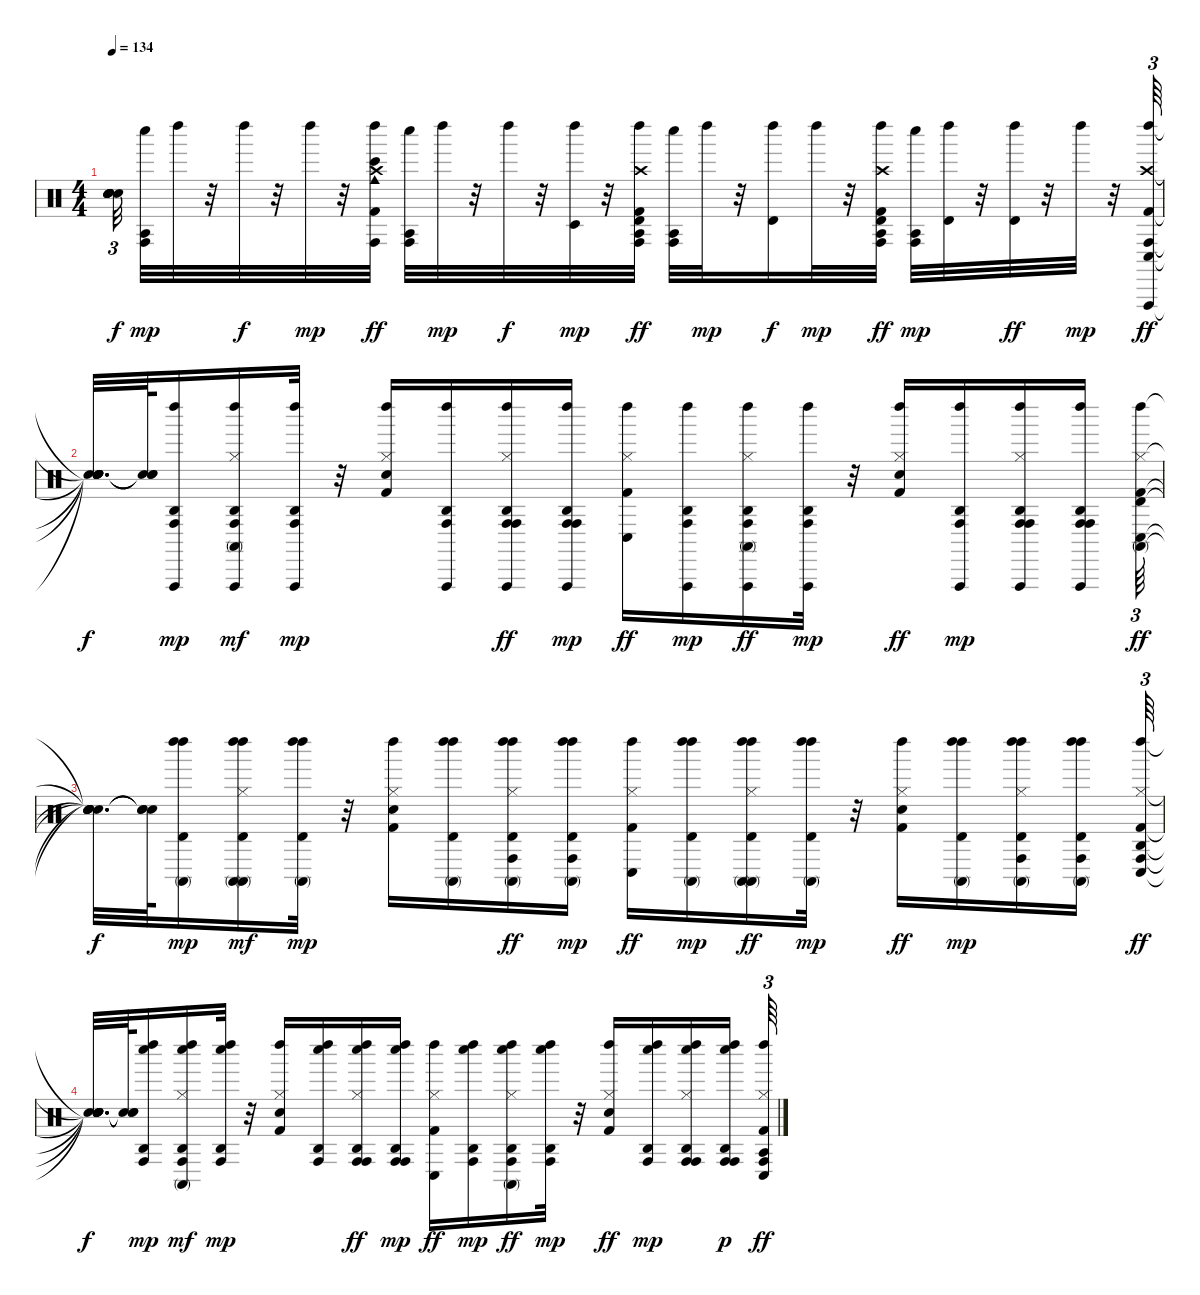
\track "" {instrument percussion}
\staff {score}
\articulation defaults
\ts (4 4)
\tempo 134
\clef neutral
\ks c
("Snare (hit)"{t} "Snare (hit)"{t} "Snare (hit)"{t} "Snare (hit)"{t} "Snare (hit)"{t} "Snare (hit)"{t}).32{tu (3 2) dy f beam splitsecondary} ("Agogo tow (hit)" "Conga high (hit)" "Whistle low (hit)").32{dy mp} "Left Maraca (hit)".32 r.32 "Left Maraca (hit)".32{dy f} r.32 "Left Maraca (hit)".32{dy mp} r.32 ("Kick (hit) 2" "Crash high (hit)" "Left Maraca (hit)" "Cowbell medium (hit)" "Bongo High (hit)" "Conga high (hit)").32{dy ff} ("Whistle low (hit)" "Agogo tow (hit)" "Conga high (hit)").32 "Left Maraca (hit)".32{dy mp} r.32 "Left Maraca (hit)".32{dy f} r.32 ("Timbale low (hit)" "Left Maraca (hit)").32{dy mp} r.32 ("Left Maraca (hit)" "Timbale high (hit)" "Crash high (hit)" "Kick (hit) 2" "Agogo tow (hit)" "Conga high (hit)").32{dy ff} ("Conga high (hit)" "Whistle low (hit)" "Agogo tow (hit)").32 "Left Maraca (hit)".32{dy mp} r.32 ("Left Maraca (hit)" "Timbale high (hit)").16{dy f} "Left Maraca (hit)".32{dy mp} r.32 ("Left Maraca (hit)" "Timbale high (hit)" "Crash high (hit)" "Kick (hit) 2" "Agogo tow (hit)" "Conga high (hit)").32{dy ff} ("Conga high (hit)" "Agogo tow (hit)" "Whistle low (hit)").32{dy mp} ("Timbale high (hit)" "Left Maraca (hit)").32 r.32 ("Left Maraca (hit)" "Timbale high (hit)").32{dy ff} r.32 "Left Maraca (hit)".32{dy mp} r.32 ("Kick (hit) 2" "Crash high (hit)" "Conga low (hit)" "Left Maraca (hit)" "Conga high (hit)" "Vibraslap (hit)").64{tu (3 2) dy ff} |
("Snare (hit)"{t} "Snare (hit)"{t} "Snare (hit)"{t} "Snare (hit)"{t} "Snare (hit)"{t} "Snare (hit)"{t}).32{d dy f} ("Snare (hit)"{t} "Snare (hit)"{t} "Snare (hit)"{t}).64 ("Agogo high (hit)" "Conga high (hit)" "Vibraslap (hit)" "Left Maraca (hit)").16{dy mp} ("Agogo high (hit)" "Conga high (hit)" "Vibraslap (hit)" "Hi-Hat (closed)" "Conga high (mute)" "Left Maraca (hit)").16{dy mf} ("Agogo high (hit)" "Conga high (hit)" "Vibraslap (hit)" "Left Maraca (hit)").32{dy mp} r.32 ("Kick (hit) 2" "Snare (hit) 2" "Hi-Hat (closed)" "Left Maraca (hit)").16 ("Agogo high (hit)" "Conga high (hit)" "Vibraslap (hit)" "Left Maraca (hit)").16 ("Agogo high (hit)" "Conga high (hit)" "Vibraslap (hit)" "Left Maraca (hit)" "Conga high (hit)" "Hi-Hat (closed)").16{dy ff} ("Agogo high (hit)" "Conga high (hit)" "Vibraslap (hit)" "Conga high (hit)" "Left Maraca (hit)").16{dy mp} ("Left Maraca (hit)" "Conga low (hit)" "Hi-Hat (closed)" "Kick (hit) 2").16{dy ff} ("Agogo high (hit)" "Conga high (hit)" "Vibraslap (hit)" "Left Maraca (hit)").16{dy mp} ("Agogo high (hit)" "Conga high (hit)" "Vibraslap (hit)" "Left Maraca (hit)" "Conga high (mute)" "Hi-Hat (closed)").16{dy ff} ("Agogo high (hit)" "Conga high (hit)" "Vibraslap (hit)" "Left Maraca (hit)").32{dy mp} r.32 ("Left Maraca (hit)" "Hi-Hat (closed)" "Snare (hit) 2" "Kick (hit) 2").16{dy ff} ("Agogo high (hit)" "Conga high (hit)" "Vibraslap (hit)" "Left Maraca (hit)").16{dy mp} ("Agogo high (hit)" "Conga high (hit)" "Vibraslap (hit)" "Hi-Hat (closed)" "Conga high (hit)" "Left Maraca (hit)").16 ("Agogo high (hit)" "Conga high (hit)" "Vibraslap (hit)" "Left Maraca (hit)" "Conga high (hit)").16 ("Kick (hit) 2" "Hi-Hat (closed)" "Conga low (hit)" "Left Maraca (hit)" "Timbale high (hit)" "Conga high (mute)").64{tu (3 2) dy ff} |
("Snare (hit)"{t} "Snare (hit)"{t} "Snare (hit)"{t} "Snare (hit)"{t} "Snare (hit)"{t} "Snare (hit)"{t}).32{d dy f} ("Snare (hit)"{t} "Snare (hit)"{t} "Snare (hit)"{t}).64 ("Left Maraca (hit)" "Timbale high (hit)" "Conga high (mute)" "Left Maraca (hit)").16{dy mp} ("Left Maraca (hit)" "Timbale high (hit)" "Conga high (mute)" "Hi-Hat (closed)" "Conga high (mute)" "Left Maraca (hit)").16{dy mf} ("Left Maraca (hit)" "Timbale high (hit)" "Conga high (mute)" "Left Maraca (hit)").32{dy mp} r.32 ("Kick (hit) 2" "Snare (hit) 2" "Hi-Hat (closed)" "Left Maraca (hit)").16 ("Left Maraca (hit)" "Timbale high (hit)" "Conga high (mute)" "Left Maraca (hit)").16 ("Left Maraca (hit)" "Timbale high (hit)" "Conga high (mute)" "Left Maraca (hit)" "Conga high (hit)" "Hi-Hat (closed)").16{dy ff} ("Left Maraca (hit)" "Timbale high (hit)" "Conga high (mute)" "Conga high (hit)" "Left Maraca (hit)").16{dy mp} ("Left Maraca (hit)" "Conga low (hit)" "Hi-Hat (closed)" "Kick (hit) 2").16{dy ff} ("Left Maraca (hit)" "Timbale high (hit)" "Conga high (mute)" "Left Maraca (hit)").16{dy mp} ("Left Maraca (hit)" "Timbale high (hit)" "Conga high (mute)" "Left Maraca (hit)" "Conga high (mute)" "Hi-Hat (closed)").16{dy ff} ("Left Maraca (hit)" "Timbale high (hit)" "Conga high (mute)" "Left Maraca (hit)").32{dy mp} r.32 ("Left Maraca (hit)" "Hi-Hat (closed)" "Snare (hit) 2" "Kick (hit) 2").16{dy ff} ("Conga high (mute)" "Timbale high (hit)" "Left Maraca (hit)" "Left Maraca (hit)").16{dy mp} ("Left Maraca (hit)" "Timbale high (hit)" "Conga high (mute)" "Hi-Hat (closed)" "Conga high (hit)" "Left Maraca (hit)").16 ("Left Maraca (hit)" "Timbale high (hit)" "Conga high (mute)" "Left Maraca (hit)" "Conga high (hit)").16 ("Kick (hit) 2" "Hi-Hat (closed)" "Conga low (hit)" "Left Maraca (hit)" "Agogo high (hit)" "Conga high (hit)").64{tu (3 2) dy ff} |
("Snare (hit)"{t} "Snare (hit)"{t} "Snare (hit)"{t} "Snare (hit)"{t} "Snare (hit)"{t} "Snare (hit)"{t}).32{d dy f} ("Snare (hit)"{t} "Snare (hit)"{t} "Snare (hit)"{t}).64 ("Whistle low (hit)" "Agogo high (hit)" "Conga high (hit)" "Left Maraca (hit)").16{dy mp} ("Whistle low (hit)" "Agogo high (hit)" "Conga high (hit)" "Hi-Hat (closed)" "Conga high (mute)" "Left Maraca (hit)").16{dy mf} ("Whistle low (hit)" "Agogo high (hit)" "Conga high (hit)" "Left Maraca (hit)").32{dy mp} r.32 ("Kick (hit) 2" "Snare (hit) 2" "Hi-Hat (closed)" "Left Maraca (hit)").16 ("Whistle low (hit)" "Agogo high (hit)" "Conga high (hit)" "Left Maraca (hit)").16 ("Whistle low (hit)" "Agogo high (hit)" "Conga high (hit)" "Left Maraca (hit)" "Conga high (hit)" "Hi-Hat (closed)").16{dy ff} ("Whistle low (hit)" "Agogo high (hit)" "Conga high (hit)" "Conga high (hit)" "Left Maraca (hit)").16{dy mp} ("Left Maraca (hit)" "Conga low (hit)" "Hi-Hat (closed)" "Kick (hit) 2").16{dy ff} ("Whistle low (hit)" "Agogo high (hit)" "Conga high (hit)" "Left Maraca (hit)").16{dy mp} ("Whistle low (hit)" "Agogo high (hit)" "Conga high (hit)" "Left Maraca (hit)" "Conga high (mute)" "Hi-Hat (closed)").16{dy ff} ("Whistle low (hit)" "Agogo high (hit)" "Conga high (hit)" "Left Maraca (hit)").32{dy mp} r.32 ("Left Maraca (hit)" "Hi-Hat (closed)" "Snare (hit) 2" "Kick (hit) 2").16{dy ff} ("Whistle low (hit)" "Agogo high (hit)" "Conga high (hit)" "Left Maraca (hit)").16{dy mp} ("Whistle low (hit)" "Agogo high (hit)" "Conga high (hit)" "Hi-Hat (closed)" "Conga high (hit)" "Left Maraca (hit)").16 ("Whistle low (hit)" "Agogo high (hit)" "Conga high (hit)" "Left Maraca (hit)" "Conga high (hit)").16{dy p} ("Kick (hit) 2" "Hi-Hat (closed)" "Conga low (hit)" "Left Maraca (hit)" "Agogo tow (hit)" "Conga high (hit)").64{tu (3 2) dy ff}
